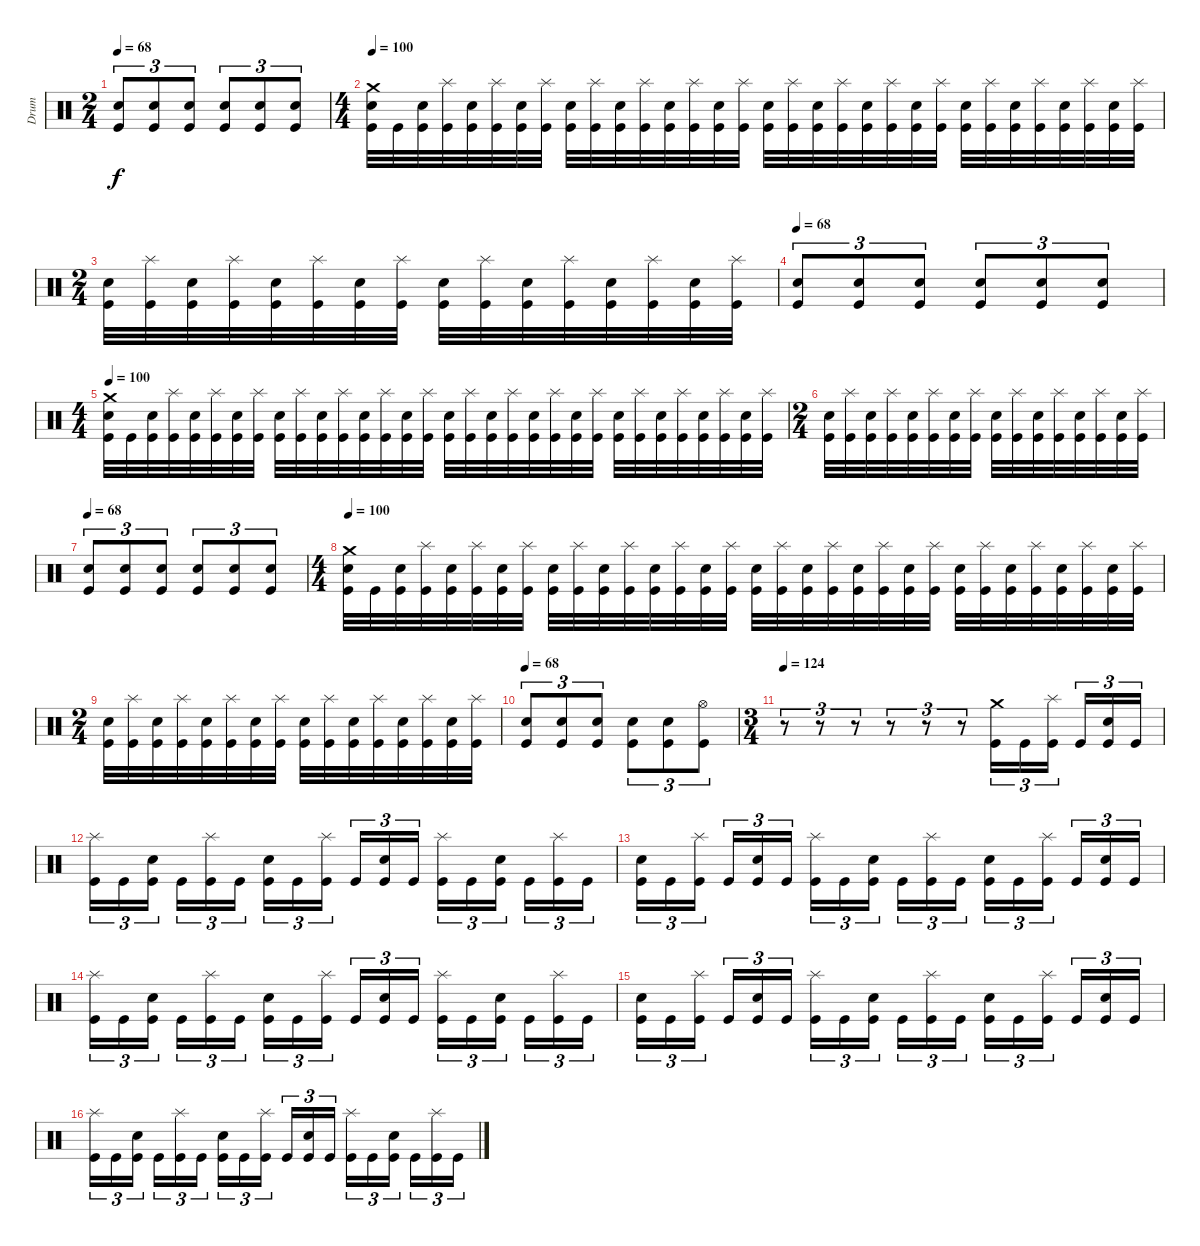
\track ("Drum" "Drum") {instrument percussion}
\staff
\articulation defaults
\ts (2 4)
\tempo 68
\clef neutral
\ks c
("Electric Snare (hit)" "Kick (hit)").8{tu (3 2) dy f} ("Electric Snare (hit)" "Kick (hit)").8{tu (3 2)} ("Electric Snare (hit)" "Kick (hit)").8{tu (3 2)} ("Electric Snare (hit)" "Kick (hit)").8{tu (3 2)} ("Electric Snare (hit)" "Kick (hit)").8{tu (3 2)} ("Electric Snare (hit)" "Kick (hit)").8{tu (3 2)} |
\ts (4 4)
\tempo 100
("Crash medium (hit)" "Electric Snare (hit)" "Kick (hit)").32 "Kick (hit)".32 ("Electric Snare (hit)" "Kick (hit)").32 ("Splash (hit)" "Kick (hit)").32 ("Electric Snare (hit)" "Kick (hit)").32 ("Splash (hit)" "Kick (hit)").32 ("Electric Snare (hit)" "Kick (hit)").32 ("Splash (hit)" "Kick (hit)").32 ("Electric Snare (hit)" "Kick (hit)").32 ("Splash (hit)" "Kick (hit)").32 ("Electric Snare (hit)" "Kick (hit)").32 ("Splash (hit)" "Kick (hit)").32 ("Electric Snare (hit)" "Kick (hit)").32 ("Splash (hit)" "Kick (hit)").32 ("Electric Snare (hit)" "Kick (hit)").32 ("Splash (hit)" "Kick (hit)").32 ("Electric Snare (hit)" "Kick (hit)").32 ("Splash (hit)" "Kick (hit)").32 ("Electric Snare (hit)" "Kick (hit)").32 ("Splash (hit)" "Kick (hit)").32 ("Electric Snare (hit)" "Kick (hit)").32 ("Splash (hit)" "Kick (hit)").32 ("Electric Snare (hit)" "Kick (hit)").32 ("Splash (hit)" "Kick (hit)").32 ("Electric Snare (hit)" "Kick (hit)").32 ("Splash (hit)" "Kick (hit)").32 ("Electric Snare (hit)" "Kick (hit)").32 ("Splash (hit)" "Kick (hit)").32 ("Electric Snare (hit)" "Kick (hit)").32 ("Splash (hit)" "Kick (hit)").32 ("Electric Snare (hit)" "Kick (hit)").32 ("Splash (hit)" "Kick (hit)").32 |
\ts (2 4)
("Electric Snare (hit)" "Kick (hit)").32 ("Splash (hit)" "Kick (hit)").32 ("Electric Snare (hit)" "Kick (hit)").32 ("Splash (hit)" "Kick (hit)").32 ("Electric Snare (hit)" "Kick (hit)").32 ("Splash (hit)" "Kick (hit)").32 ("Electric Snare (hit)" "Kick (hit)").32 ("Splash (hit)" "Kick (hit)").32 ("Electric Snare (hit)" "Kick (hit)").32 ("Splash (hit)" "Kick (hit)").32 ("Electric Snare (hit)" "Kick (hit)").32 ("Splash (hit)" "Kick (hit)").32 ("Electric Snare (hit)" "Kick (hit)").32 ("Splash (hit)" "Kick (hit)").32 ("Electric Snare (hit)" "Kick (hit)").32 ("Splash (hit)" "Kick (hit)").32 |
\tempo 68
("Electric Snare (hit)" "Kick (hit)").8{tu (3 2)} ("Electric Snare (hit)" "Kick (hit)").8{tu (3 2)} ("Electric Snare (hit)" "Kick (hit)").8{tu (3 2)} ("Electric Snare (hit)" "Kick (hit)").8{tu (3 2)} ("Electric Snare (hit)" "Kick (hit)").8{tu (3 2)} ("Electric Snare (hit)" "Kick (hit)").8{tu (3 2)} |
\ts (4 4)
\tempo 100
("Crash medium (hit)" "Electric Snare (hit)" "Kick (hit)").32 "Kick (hit)".32 ("Electric Snare (hit)" "Kick (hit)").32 ("Splash (hit)" "Kick (hit)").32 ("Electric Snare (hit)" "Kick (hit)").32 ("Splash (hit)" "Kick (hit)").32 ("Electric Snare (hit)" "Kick (hit)").32 ("Splash (hit)" "Kick (hit)").32 ("Electric Snare (hit)" "Kick (hit)").32 ("Splash (hit)" "Kick (hit)").32 ("Electric Snare (hit)" "Kick (hit)").32 ("Splash (hit)" "Kick (hit)").32 ("Electric Snare (hit)" "Kick (hit)").32 ("Splash (hit)" "Kick (hit)").32 ("Electric Snare (hit)" "Kick (hit)").32 ("Splash (hit)" "Kick (hit)").32 ("Electric Snare (hit)" "Kick (hit)").32 ("Splash (hit)" "Kick (hit)").32 ("Electric Snare (hit)" "Kick (hit)").32 ("Splash (hit)" "Kick (hit)").32 ("Electric Snare (hit)" "Kick (hit)").32 ("Splash (hit)" "Kick (hit)").32 ("Electric Snare (hit)" "Kick (hit)").32 ("Splash (hit)" "Kick (hit)").32 ("Electric Snare (hit)" "Kick (hit)").32 ("Splash (hit)" "Kick (hit)").32 ("Electric Snare (hit)" "Kick (hit)").32 ("Splash (hit)" "Kick (hit)").32 ("Electric Snare (hit)" "Kick (hit)").32 ("Splash (hit)" "Kick (hit)").32 ("Electric Snare (hit)" "Kick (hit)").32 ("Splash (hit)" "Kick (hit)").32 |
\ts (2 4)
("Electric Snare (hit)" "Kick (hit)").32 ("Splash (hit)" "Kick (hit)").32 ("Electric Snare (hit)" "Kick (hit)").32 ("Splash (hit)" "Kick (hit)").32 ("Electric Snare (hit)" "Kick (hit)").32 ("Splash (hit)" "Kick (hit)").32 ("Electric Snare (hit)" "Kick (hit)").32 ("Splash (hit)" "Kick (hit)").32 ("Electric Snare (hit)" "Kick (hit)").32 ("Splash (hit)" "Kick (hit)").32 ("Electric Snare (hit)" "Kick (hit)").32 ("Splash (hit)" "Kick (hit)").32 ("Electric Snare (hit)" "Kick (hit)").32 ("Splash (hit)" "Kick (hit)").32 ("Electric Snare (hit)" "Kick (hit)").32 ("Splash (hit)" "Kick (hit)").32 |
\tempo 68
("Electric Snare (hit)" "Kick (hit)").8{tu (3 2)} ("Electric Snare (hit)" "Kick (hit)").8{tu (3 2)} ("Electric Snare (hit)" "Kick (hit)").8{tu (3 2)} ("Electric Snare (hit)" "Kick (hit)").8{tu (3 2)} ("Electric Snare (hit)" "Kick (hit)").8{tu (3 2)} ("Electric Snare (hit)" "Kick (hit)").8{tu (3 2)} |
\ts (4 4)
\tempo 100
("Crash medium (hit)" "Electric Snare (hit)" "Kick (hit)").32 "Kick (hit)".32 ("Electric Snare (hit)" "Kick (hit)").32 ("Splash (hit)" "Kick (hit)").32 ("Electric Snare (hit)" "Kick (hit)").32 ("Splash (hit)" "Kick (hit)").32 ("Electric Snare (hit)" "Kick (hit)").32 ("Splash (hit)" "Kick (hit)").32 ("Electric Snare (hit)" "Kick (hit)").32 ("Splash (hit)" "Kick (hit)").32 ("Electric Snare (hit)" "Kick (hit)").32 ("Splash (hit)" "Kick (hit)").32 ("Electric Snare (hit)" "Kick (hit)").32 ("Splash (hit)" "Kick (hit)").32 ("Electric Snare (hit)" "Kick (hit)").32 ("Splash (hit)" "Kick (hit)").32 ("Electric Snare (hit)" "Kick (hit)").32 ("Splash (hit)" "Kick (hit)").32 ("Electric Snare (hit)" "Kick (hit)").32 ("Splash (hit)" "Kick (hit)").32 ("Electric Snare (hit)" "Kick (hit)").32 ("Splash (hit)" "Kick (hit)").32 ("Electric Snare (hit)" "Kick (hit)").32 ("Splash (hit)" "Kick (hit)").32 ("Electric Snare (hit)" "Kick (hit)").32 ("Splash (hit)" "Kick (hit)").32 ("Electric Snare (hit)" "Kick (hit)").32 ("Splash (hit)" "Kick (hit)").32 ("Electric Snare (hit)" "Kick (hit)").32 ("Splash (hit)" "Kick (hit)").32 ("Electric Snare (hit)" "Kick (hit)").32 ("Splash (hit)" "Kick (hit)").32 |
\ts (2 4)
("Electric Snare (hit)" "Kick (hit)").32 ("Splash (hit)" "Kick (hit)").32 ("Electric Snare (hit)" "Kick (hit)").32 ("Splash (hit)" "Kick (hit)").32 ("Electric Snare (hit)" "Kick (hit)").32 ("Splash (hit)" "Kick (hit)").32 ("Electric Snare (hit)" "Kick (hit)").32 ("Splash (hit)" "Kick (hit)").32 ("Electric Snare (hit)" "Kick (hit)").32 ("Splash (hit)" "Kick (hit)").32 ("Electric Snare (hit)" "Kick (hit)").32 ("Splash (hit)" "Kick (hit)").32 ("Electric Snare (hit)" "Kick (hit)").32 ("Splash (hit)" "Kick (hit)").32 ("Electric Snare (hit)" "Kick (hit)").32 ("Splash (hit)" "Kick (hit)").32 |
\tempo 68
("Electric Snare (hit)" "Kick (hit)").8{tu (3 2)} ("Electric Snare (hit)" "Kick (hit)").8{tu (3 2)} ("Electric Snare (hit)" "Kick (hit)").8{tu (3 2)} ("Electric Snare (hit)" "Kick (hit)").8{tu (3 2)} ("Electric Snare (hit)" "Kick (hit)").8{tu (3 2)} ("Hi-Hat (open)" "Kick (hit)").8{tu (3 2)} |
\ts (3 4)
\tempo 124
r.8{tu (3 2)} r.8{tu (3 2)} r.8{tu (3 2)} r.8{tu (3 2)} r.8{tu (3 2)} r.8{tu (3 2)} ("Crash medium (hit)" "Kick (hit)").16{tu (3 2)} "Kick (hit)".16{tu (3 2)} ("Splash (hit)" "Kick (hit)").16{tu (3 2) beam splitsecondary} "Kick (hit)".16{tu (3 2)} ("Electric Snare (hit)" "Kick (hit)").16{tu (3 2)} "Kick (hit)".16{tu (3 2)} |
("Splash (hit)" "Kick (hit)").16{tu (3 2)} "Kick (hit)".16{tu (3 2)} ("Electric Snare (hit)" "Kick (hit)").16{tu (3 2) beam splitsecondary} "Kick (hit)".16{tu (3 2)} ("Splash (hit)" "Kick (hit)").16{tu (3 2)} "Kick (hit)".16{tu (3 2)} ("Electric Snare (hit)" "Kick (hit)").16{tu (3 2)} "Kick (hit)".16{tu (3 2)} ("Splash (hit)" "Kick (hit)").16{tu (3 2) beam splitsecondary} "Kick (hit)".16{tu (3 2)} ("Electric Snare (hit)" "Kick (hit)").16{tu (3 2)} "Kick (hit)".16{tu (3 2)} ("Splash (hit)" "Kick (hit)").16{tu (3 2)} "Kick (hit)".16{tu (3 2)} ("Electric Snare (hit)" "Kick (hit)").16{tu (3 2) beam splitsecondary} "Kick (hit)".16{tu (3 2)} ("Splash (hit)" "Kick (hit)").16{tu (3 2)} "Kick (hit)".16{tu (3 2)} |
("Electric Snare (hit)" "Kick (hit)").16{tu (3 2)} "Kick (hit)".16{tu (3 2)} ("Splash (hit)" "Kick (hit)").16{tu (3 2) beam splitsecondary} "Kick (hit)".16{tu (3 2)} ("Electric Snare (hit)" "Kick (hit)").16{tu (3 2)} "Kick (hit)".16{tu (3 2)} ("Splash (hit)" "Kick (hit)").16{tu (3 2)} "Kick (hit)".16{tu (3 2)} ("Electric Snare (hit)" "Kick (hit)").16{tu (3 2) beam splitsecondary} "Kick (hit)".16{tu (3 2)} ("Splash (hit)" "Kick (hit)").16{tu (3 2)} "Kick (hit)".16{tu (3 2)} ("Electric Snare (hit)" "Kick (hit)").16{tu (3 2)} "Kick (hit)".16{tu (3 2)} ("Splash (hit)" "Kick (hit)").16{tu (3 2) beam splitsecondary} "Kick (hit)".16{tu (3 2)} ("Electric Snare (hit)" "Kick (hit)").16{tu (3 2)} "Kick (hit)".16{tu (3 2)} |
("Splash (hit)" "Kick (hit)").16{tu (3 2)} "Kick (hit)".16{tu (3 2)} ("Electric Snare (hit)" "Kick (hit)").16{tu (3 2) beam splitsecondary} "Kick (hit)".16{tu (3 2)} ("Splash (hit)" "Kick (hit)").16{tu (3 2)} "Kick (hit)".16{tu (3 2)} ("Electric Snare (hit)" "Kick (hit)").16{tu (3 2)} "Kick (hit)".16{tu (3 2)} ("Splash (hit)" "Kick (hit)").16{tu (3 2) beam splitsecondary} "Kick (hit)".16{tu (3 2)} ("Electric Snare (hit)" "Kick (hit)").16{tu (3 2)} "Kick (hit)".16{tu (3 2)} ("Splash (hit)" "Kick (hit)").16{tu (3 2)} "Kick (hit)".16{tu (3 2)} ("Electric Snare (hit)" "Kick (hit)").16{tu (3 2) beam splitsecondary} "Kick (hit)".16{tu (3 2)} ("Splash (hit)" "Kick (hit)").16{tu (3 2)} "Kick (hit)".16{tu (3 2)} |
("Electric Snare (hit)" "Kick (hit)").16{tu (3 2)} "Kick (hit)".16{tu (3 2)} ("Splash (hit)" "Kick (hit)").16{tu (3 2) beam splitsecondary} "Kick (hit)".16{tu (3 2)} ("Electric Snare (hit)" "Kick (hit)").16{tu (3 2)} "Kick (hit)".16{tu (3 2)} ("Splash (hit)" "Kick (hit)").16{tu (3 2)} "Kick (hit)".16{tu (3 2)} ("Electric Snare (hit)" "Kick (hit)").16{tu (3 2) beam splitsecondary} "Kick (hit)".16{tu (3 2)} ("Splash (hit)" "Kick (hit)").16{tu (3 2)} "Kick (hit)".16{tu (3 2)} ("Electric Snare (hit)" "Kick (hit)").16{tu (3 2)} "Kick (hit)".16{tu (3 2)} ("Splash (hit)" "Kick (hit)").16{tu (3 2) beam splitsecondary} "Kick (hit)".16{tu (3 2)} ("Electric Snare (hit)" "Kick (hit)").16{tu (3 2)} "Kick (hit)".16{tu (3 2)} |
("Splash (hit)" "Kick (hit)").16{tu (3 2)} "Kick (hit)".16{tu (3 2)} ("Electric Snare (hit)" "Kick (hit)").16{tu (3 2) beam splitsecondary} "Kick (hit)".16{tu (3 2)} ("Splash (hit)" "Kick (hit)").16{tu (3 2)} "Kick (hit)".16{tu (3 2)} ("Electric Snare (hit)" "Kick (hit)").16{tu (3 2)} "Kick (hit)".16{tu (3 2)} ("Splash (hit)" "Kick (hit)").16{tu (3 2) beam splitsecondary} "Kick (hit)".16{tu (3 2)} ("Electric Snare (hit)" "Kick (hit)").16{tu (3 2)} "Kick (hit)".16{tu (3 2)} ("Splash (hit)" "Kick (hit)").16{tu (3 2)} "Kick (hit)".16{tu (3 2)} ("Electric Snare (hit)" "Kick (hit)").16{tu (3 2) beam splitsecondary} "Kick (hit)".16{tu (3 2)} ("Splash (hit)" "Kick (hit)").16{tu (3 2)} "Kick (hit)".16{tu (3 2)}
